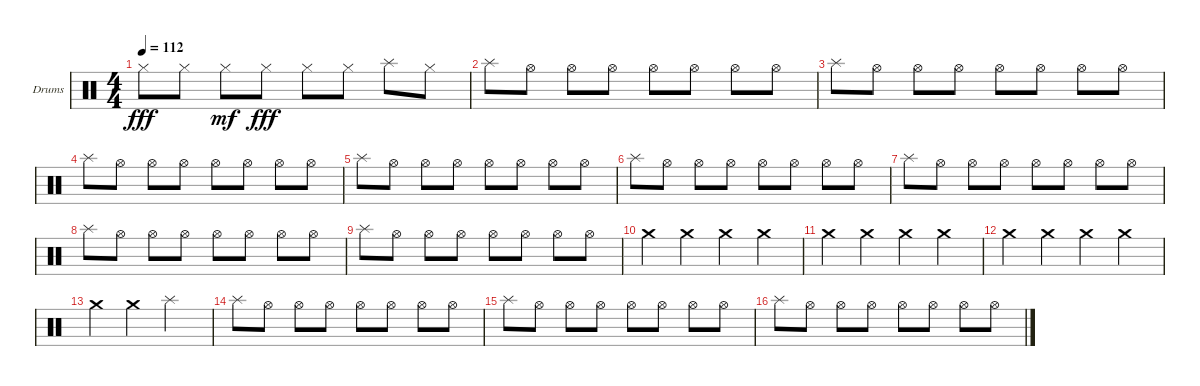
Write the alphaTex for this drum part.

\defaultSystemsLayout 4
\bracketExtendMode groupsimilarinstruments
\firstSystemTrackNameOrientation horizontal
\otherSystemsTrackNameOrientation horizontal
\track ("Пашок" "Drums") {instrument percussion}
\staff {score}
\articulation defaults
\ts (4 4)
\tempo 112
\clef neutral
\ks c "Hi-Hat (closed)".8{dy fff} "Hi-Hat (closed)".8 "Hi-Hat (closed)".8{dy mf} "Hi-Hat (closed)".8{dy fff} "Hi-Hat (closed)".8 "Hi-Hat (closed)".8 "Splash (hit)".8 "Hi-Hat (closed)".8
|
"Splash (hit)".8 "Hi-Hat (open)".8 "Hi-Hat (open)".8 "Hi-Hat (open)".8 "Hi-Hat (open)".8 "Hi-Hat (open)".8 "Hi-Hat (open)".8 "Hi-Hat (open)".8 |
"Splash (hit)".8 "Hi-Hat (open)".8 "Hi-Hat (open)".8 "Hi-Hat (open)".8 "Hi-Hat (open)".8 "Hi-Hat (open)".8 "Hi-Hat (open)".8 "Hi-Hat (open)".8 |
"Splash (hit)".8 "Hi-Hat (open)".8 "Hi-Hat (open)".8 "Hi-Hat (open)".8 "Hi-Hat (open)".8 "Hi-Hat (open)".8 "Hi-Hat (open)".8 "Hi-Hat (open)".8 |
"Splash (hit)".8 "Hi-Hat (open)".8 "Hi-Hat (open)".8 "Hi-Hat (open)".8 "Hi-Hat (open)".8 "Hi-Hat (open)".8 "Hi-Hat (open)".8 "Hi-Hat (open)".8 |
"Splash (hit)".8 "Hi-Hat (open)".8 "Hi-Hat (open)".8 "Hi-Hat (open)".8 "Hi-Hat (open)".8 "Hi-Hat (open)".8 "Hi-Hat (open)".8 "Hi-Hat (open)".8 |
"Splash (hit)".8 "Hi-Hat (open)".8 "Hi-Hat (open)".8 "Hi-Hat (open)".8 "Hi-Hat (open)".8 "Hi-Hat (open)".8 "Hi-Hat (open)".8 "Hi-Hat (open)".8 |
"Splash (hit)".8 "Hi-Hat (open)".8 "Hi-Hat (open)".8 "Hi-Hat (open)".8 "Hi-Hat (open)".8 "Hi-Hat (open)".8 "Hi-Hat (open)".8 "Hi-Hat (open)".8 |
"Splash (hit)".8 "Hi-Hat (open)".8 "Hi-Hat (open)".8 "Hi-Hat (open)".8 "Hi-Hat (open)".8 "Hi-Hat (open)".8 "Hi-Hat (open)".8 "Hi-Hat (open)".8 |
"Crash medium (hit)".4 "Crash medium (hit)".4 "Crash medium (hit)".4 "Crash medium (hit)".4 |
"Crash medium (hit)".4 "Crash medium (hit)".4 "Crash medium (hit)".4 "Crash medium (hit)".4 |
"Crash medium (hit)".4 "Crash medium (hit)".4 "Crash medium (hit)".4 "Crash medium (hit)".4 |
"Crash medium (hit)".4 "Crash medium (hit)".4 "Splash (hit)".2 |
"Splash (hit)".8 "Hi-Hat (open)".8 "Hi-Hat (open)".8 "Hi-Hat (open)".8 "Hi-Hat (open)".8 "Hi-Hat (open)".8 "Hi-Hat (open)".8 "Hi-Hat (open)".8 |
"Splash (hit)".8 "Hi-Hat (open)".8 "Hi-Hat (open)".8 "Hi-Hat (open)".8 "Hi-Hat (open)".8 "Hi-Hat (open)".8 "Hi-Hat (open)".8 "Hi-Hat (open)".8 |
"Splash (hit)".8 "Hi-Hat (open)".8 "Hi-Hat (open)".8 "Hi-Hat (open)".8 "Hi-Hat (open)".8 "Hi-Hat (open)".8 "Hi-Hat (open)".8 "Hi-Hat (open)".8
